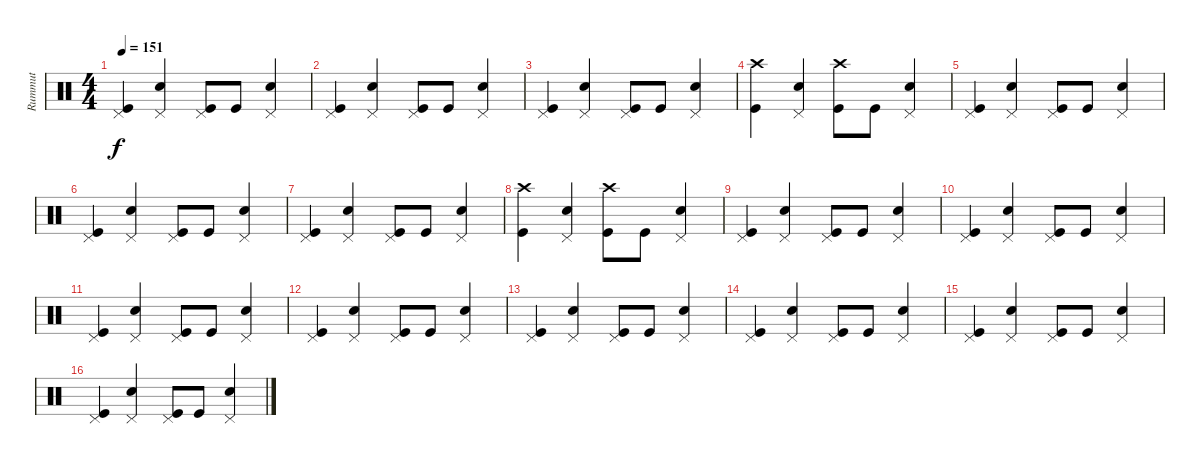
\track ("Rummut" "Rummut") {instrument percussion}
\staff {score}
\articulation defaults
\ts (4 4)
\tempo 151
\clef neutral
\ks c
("Pedal Hi-Hat (hit)" "Kick (hit)").4{dy f} ("Pedal Hi-Hat (hit)" "Snare (hit) 2").4 ("Pedal Hi-Hat (hit)" "Kick (hit)").8 "Kick (hit)".8 ("Pedal Hi-Hat (hit)" "Snare (hit) 2").4 |
("Pedal Hi-Hat (hit)" "Kick (hit)").4 ("Pedal Hi-Hat (hit)" "Snare (hit) 2").4 ("Pedal Hi-Hat (hit)" "Kick (hit)").8 "Kick (hit)".8 ("Pedal Hi-Hat (hit)" "Snare (hit) 2").4 |
("Pedal Hi-Hat (hit)" "Kick (hit)").4 ("Pedal Hi-Hat (hit)" "Snare (hit) 2").4 ("Pedal Hi-Hat (hit)" "Kick (hit)").8 "Kick (hit)".8 ("Pedal Hi-Hat (hit)" "Snare (hit) 2").4 |
("Crash high (hit)" "Kick (hit)").4 ("Pedal Hi-Hat (hit)" "Snare (hit) 2").4 ("Crash high (hit)" "Kick (hit)").8 "Kick (hit)".8 ("Pedal Hi-Hat (hit)" "Snare (hit) 2").4 |
("Pedal Hi-Hat (hit)" "Kick (hit)").4 ("Pedal Hi-Hat (hit)" "Snare (hit) 2").4 ("Pedal Hi-Hat (hit)" "Kick (hit)").8 "Kick (hit)".8 ("Pedal Hi-Hat (hit)" "Snare (hit) 2").4 |
("Pedal Hi-Hat (hit)" "Kick (hit)").4 ("Pedal Hi-Hat (hit)" "Snare (hit) 2").4 ("Pedal Hi-Hat (hit)" "Kick (hit)").8 "Kick (hit)".8 ("Pedal Hi-Hat (hit)" "Snare (hit) 2").4 |
("Pedal Hi-Hat (hit)" "Kick (hit)").4 ("Pedal Hi-Hat (hit)" "Snare (hit) 2").4 ("Pedal Hi-Hat (hit)" "Kick (hit)").8 "Kick (hit)".8 ("Pedal Hi-Hat (hit)" "Snare (hit) 2").4 |
("Crash high (hit)" "Kick (hit)").4 ("Pedal Hi-Hat (hit)" "Snare (hit) 2").4 ("Crash high (hit)" "Kick (hit)").8 "Kick (hit)".8 ("Pedal Hi-Hat (hit)" "Snare (hit) 2").4 |
("Pedal Hi-Hat (hit)" "Kick (hit)").4 ("Pedal Hi-Hat (hit)" "Snare (hit) 2").4 ("Pedal Hi-Hat (hit)" "Kick (hit)").8 "Kick (hit)".8 ("Pedal Hi-Hat (hit)" "Snare (hit) 2").4 |
("Pedal Hi-Hat (hit)" "Kick (hit)").4 ("Pedal Hi-Hat (hit)" "Snare (hit) 2").4 ("Pedal Hi-Hat (hit)" "Kick (hit)").8 "Kick (hit)".8 ("Pedal Hi-Hat (hit)" "Snare (hit) 2").4 |
("Pedal Hi-Hat (hit)" "Kick (hit)").4 ("Pedal Hi-Hat (hit)" "Snare (hit) 2").4 ("Pedal Hi-Hat (hit)" "Kick (hit)").8 "Kick (hit)".8 ("Pedal Hi-Hat (hit)" "Snare (hit) 2").4 |
("Pedal Hi-Hat (hit)" "Kick (hit)").4 ("Pedal Hi-Hat (hit)" "Snare (hit) 2").4 ("Pedal Hi-Hat (hit)" "Kick (hit)").8 "Kick (hit)".8 ("Pedal Hi-Hat (hit)" "Snare (hit) 2").4 |
("Pedal Hi-Hat (hit)" "Kick (hit)").4 ("Pedal Hi-Hat (hit)" "Snare (hit) 2").4 ("Pedal Hi-Hat (hit)" "Kick (hit)").8 "Kick (hit)".8 ("Pedal Hi-Hat (hit)" "Snare (hit) 2").4 |
("Pedal Hi-Hat (hit)" "Kick (hit)").4 ("Pedal Hi-Hat (hit)" "Snare (hit) 2").4 ("Pedal Hi-Hat (hit)" "Kick (hit)").8 "Kick (hit)".8 ("Pedal Hi-Hat (hit)" "Snare (hit) 2").4 |
("Pedal Hi-Hat (hit)" "Kick (hit)").4 ("Pedal Hi-Hat (hit)" "Snare (hit) 2").4 ("Pedal Hi-Hat (hit)" "Kick (hit)").8 "Kick (hit)".8 ("Pedal Hi-Hat (hit)" "Snare (hit) 2").4 |
("Pedal Hi-Hat (hit)" "Kick (hit)").4 ("Pedal Hi-Hat (hit)" "Snare (hit) 2").4 ("Pedal Hi-Hat (hit)" "Kick (hit)").8 "Kick (hit)".8 ("Pedal Hi-Hat (hit)" "Snare (hit) 2").4
